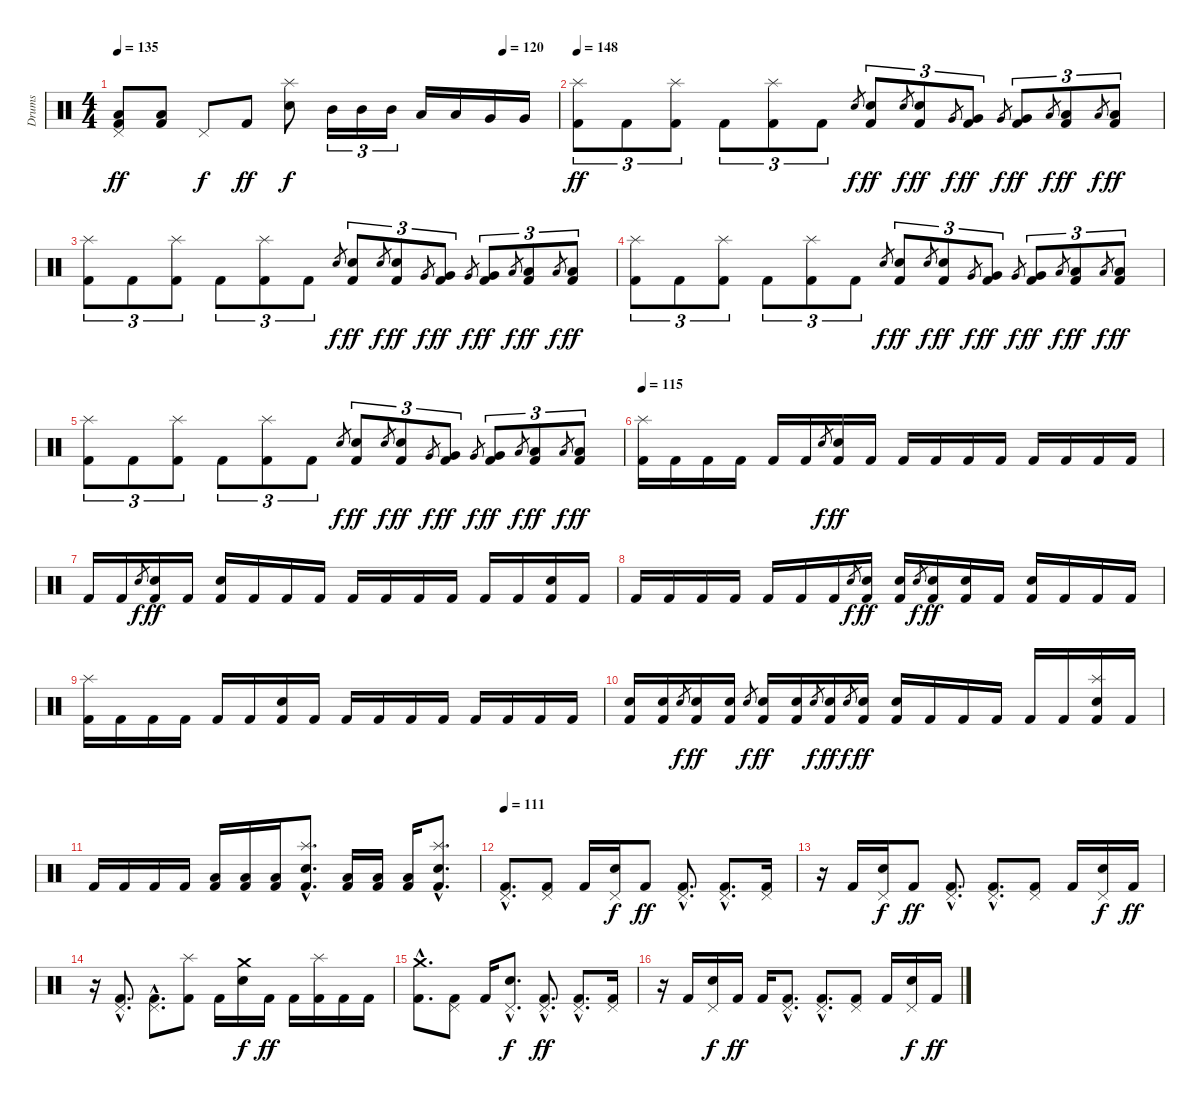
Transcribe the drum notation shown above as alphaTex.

\track ("Drums" "Drums") {instrument percussion}
\staff {score}
\articulation defaults
\ts (4 4)
\tempo 135
\tempo (120 0.875)
\clef neutral
\ks c
("Pedal Hi-Hat (hit)" "Low Floor Tom (hit)" "Kick (hit) 2").8{dy ff} ("Low Floor Tom (hit)" "Kick (hit) 2").8 "Pedal Hi-Hat (hit)".8{dy f} "Kick (hit) 2".8{dy ff} ("Splash (hit)" "Electric Snare (hit)").8{dy f} "Mid Tom (hit)".16{tu (3 2)} "Mid Tom (hit)".16{tu (3 2)} "Mid Tom (hit)".16{tu (3 2)} "Low Tom (hit)".16 "Low Tom (hit)".16 "Very Low Tom (hit)".16 "Very Low Tom (hit)".16 |
\tempo 148
("Splash (hit)" "Kick (hit) 2").8{tu (3 2) dy ff} "Kick (hit) 2".8{tu (3 2)} ("Splash (hit)" "Kick (hit) 2").8{tu (3 2)} "Kick (hit) 2".8{tu (3 2)} ("Splash (hit)" "Kick (hit) 2").8{tu (3 2)} "Kick (hit) 2".8{tu (3 2)} "Electric Snare (hit)".8{gr dy f} ("Electric Snare (hit)" "Kick (hit) 2").8{tu (3 2) dy ff} "Electric Snare (hit)".8{gr dy f} ("Electric Snare (hit)" "Kick (hit) 2").8{tu (3 2) dy ff} "Very Low Tom (hit)".8{gr dy f} ("Very Low Tom (hit)" "Kick (hit) 2").8{tu (3 2) dy ff} "Very Low Tom (hit)".8{gr dy f} ("Very Low Tom (hit)" "Kick (hit) 2").8{tu (3 2) dy ff} "Low Floor Tom (hit)".8{gr dy f} ("Low Floor Tom (hit)" "Kick (hit) 2").8{tu (3 2) dy ff} "Low Floor Tom (hit)".8{gr dy f} ("Low Floor Tom (hit)" "Kick (hit) 2").8{tu (3 2) dy ff} |
("Splash (hit)" "Kick (hit) 2").8{tu (3 2)} "Kick (hit) 2".8{tu (3 2)} ("Splash (hit)" "Kick (hit) 2").8{tu (3 2)} "Kick (hit) 2".8{tu (3 2)} ("Splash (hit)" "Kick (hit) 2").8{tu (3 2)} "Kick (hit) 2".8{tu (3 2)} "Electric Snare (hit)".8{gr dy f} ("Electric Snare (hit)" "Kick (hit) 2").8{tu (3 2) dy ff} "Electric Snare (hit)".8{gr dy f} ("Electric Snare (hit)" "Kick (hit) 2").8{tu (3 2) dy ff} "Very Low Tom (hit)".8{gr dy f} ("Very Low Tom (hit)" "Kick (hit) 2").8{tu (3 2) dy ff} "Very Low Tom (hit)".8{gr dy f} ("Very Low Tom (hit)" "Kick (hit) 2").8{tu (3 2) dy ff} "Low Floor Tom (hit)".8{gr dy f} ("Low Floor Tom (hit)" "Kick (hit) 2").8{tu (3 2) dy ff} "Low Floor Tom (hit)".8{gr dy f} ("Low Floor Tom (hit)" "Kick (hit) 2").8{tu (3 2) dy ff} |
("Splash (hit)" "Kick (hit) 2").8{tu (3 2)} "Kick (hit) 2".8{tu (3 2)} ("Splash (hit)" "Kick (hit) 2").8{tu (3 2)} "Kick (hit) 2".8{tu (3 2)} ("Splash (hit)" "Kick (hit) 2").8{tu (3 2)} "Kick (hit) 2".8{tu (3 2)} "Electric Snare (hit)".8{gr dy f} ("Electric Snare (hit)" "Kick (hit) 2").8{tu (3 2) dy ff} "Electric Snare (hit)".8{gr dy f} ("Electric Snare (hit)" "Kick (hit) 2").8{tu (3 2) dy ff} "Very Low Tom (hit)".8{gr dy f} ("Very Low Tom (hit)" "Kick (hit) 2").8{tu (3 2) dy ff} "Very Low Tom (hit)".8{gr dy f} ("Very Low Tom (hit)" "Kick (hit) 2").8{tu (3 2) dy ff} "Low Floor Tom (hit)".8{gr dy f} ("Low Floor Tom (hit)" "Kick (hit) 2").8{tu (3 2) dy ff} "Low Floor Tom (hit)".8{gr dy f} ("Low Floor Tom (hit)" "Kick (hit) 2").8{tu (3 2) dy ff} |
("Splash (hit)" "Kick (hit) 2").8{tu (3 2)} "Kick (hit) 2".8{tu (3 2)} ("Splash (hit)" "Kick (hit) 2").8{tu (3 2)} "Kick (hit) 2".8{tu (3 2)} ("Splash (hit)" "Kick (hit) 2").8{tu (3 2)} "Kick (hit) 2".8{tu (3 2)} "Electric Snare (hit)".8{gr dy f} ("Electric Snare (hit)" "Kick (hit) 2").8{tu (3 2) dy ff} "Electric Snare (hit)".8{gr dy f} ("Electric Snare (hit)" "Kick (hit) 2").8{tu (3 2) dy ff} "Very Low Tom (hit)".8{gr dy f} ("Very Low Tom (hit)" "Kick (hit) 2").8{tu (3 2) dy ff} "Very Low Tom (hit)".8{gr dy f} ("Very Low Tom (hit)" "Kick (hit) 2").8{tu (3 2) dy ff} "Low Floor Tom (hit)".8{gr dy f} ("Low Floor Tom (hit)" "Kick (hit) 2").8{tu (3 2) dy ff} "Low Floor Tom (hit)".8{gr dy f} ("Low Floor Tom (hit)" "Kick (hit) 2").8{tu (3 2) dy ff} |
\tempo 115
("Splash (hit)" "Kick (hit) 2").16 "Kick (hit) 2".16 "Kick (hit) 2".16 "Kick (hit) 2".16 "Kick (hit) 2".16 "Kick (hit) 2".16 "Electric Snare (hit)".8{gr dy f} ("Electric Snare (hit)" "Kick (hit) 2").16{dy ff} "Kick (hit) 2".16 "Kick (hit) 2".16 "Kick (hit) 2".16 "Kick (hit) 2".16 "Kick (hit) 2".16 "Kick (hit) 2".16 "Kick (hit) 2".16 "Kick (hit) 2".16 "Kick (hit) 2".16 |
"Kick (hit) 2".16 "Kick (hit) 2".16 "Electric Snare (hit)".8{gr dy f} ("Electric Snare (hit)" "Kick (hit) 2").16{dy ff} "Kick (hit) 2".16 ("Electric Snare (hit)" "Kick (hit) 2").16 "Kick (hit) 2".16 "Kick (hit) 2".16 "Kick (hit) 2".16 "Kick (hit) 2".16 "Kick (hit) 2".16 "Kick (hit) 2".16 "Kick (hit) 2".16 "Kick (hit) 2".16 "Kick (hit) 2".16 ("Electric Snare (hit)" "Kick (hit) 2").16 "Kick (hit) 2".16 |
"Kick (hit) 2".16 "Kick (hit) 2".16 "Kick (hit) 2".16 "Kick (hit) 2".16 "Kick (hit) 2".16 "Kick (hit) 2".16 "Kick (hit) 2".16 "Electric Snare (hit)".8{gr dy f} ("Electric Snare (hit)" "Kick (hit) 2").16{dy ff} ("Electric Snare (hit)" "Kick (hit) 2").16 "Electric Snare (hit)".8{gr dy f} ("Electric Snare (hit)" "Kick (hit) 2").16{dy ff} ("Electric Snare (hit)" "Kick (hit) 2").16 "Kick (hit) 2".16 ("Electric Snare (hit)" "Kick (hit) 2").16 "Kick (hit) 2".16 "Kick (hit) 2".16 "Kick (hit) 2".16 |
("Splash (hit)" "Kick (hit) 2").16 "Kick (hit) 2".16 "Kick (hit) 2".16 "Kick (hit) 2".16 "Kick (hit) 2".16 "Kick (hit) 2".16 ("Electric Snare (hit)" "Kick (hit) 2").16 "Kick (hit) 2".16 "Kick (hit) 2".16 "Kick (hit) 2".16 "Kick (hit) 2".16 "Kick (hit) 2".16 "Kick (hit) 2".16 "Kick (hit) 2".16 "Kick (hit) 2".16 "Kick (hit) 2".16 |
("Electric Snare (hit)" "Kick (hit) 2").16 ("Electric Snare (hit)" "Kick (hit) 2").16 "Electric Snare (hit)".8{gr dy f} ("Electric Snare (hit)" "Kick (hit) 2").16{dy ff} ("Electric Snare (hit)" "Kick (hit) 2").16 "Electric Snare (hit)".8{gr dy f} ("Electric Snare (hit)" "Kick (hit) 2").16{dy ff} ("Electric Snare (hit)" "Kick (hit) 2").16 "Electric Snare (hit)".8{gr dy f} ("Electric Snare (hit)" "Kick (hit) 2").16{dy ff} "Electric Snare (hit)".8{gr dy f} ("Electric Snare (hit)" "Kick (hit) 2").16{dy ff} ("Electric Snare (hit)" "Kick (hit) 2").16 "Kick (hit) 2".16 "Kick (hit) 2".16 "Kick (hit) 2".16 "Kick (hit) 2".16 "Kick (hit) 2".16 ("Splash (hit)" "Electric Snare (hit)" "Kick (hit) 2").16 "Kick (hit) 2".16 |
"Kick (hit) 2".16 "Kick (hit) 2".16 "Kick (hit) 2".16 "Kick (hit) 2".16 ("Low Floor Tom (hit)" "Kick (hit) 2").16 ("Low Floor Tom (hit)" "Kick (hit) 2").16 ("Low Floor Tom (hit)" "Kick (hit) 2").16 ("Splash (hit)"{hac} "Electric Snare (hit)"{hac} "Kick (hit) 2"{hac}).8{d} ("Low Floor Tom (hit)" "Kick (hit) 2").16 ("Low Floor Tom (hit)" "Kick (hit) 2").16 ("Low Floor Tom (hit)" "Kick (hit) 2").16 ("Splash (hit)"{hac} "Electric Snare (hit)"{hac} "Kick (hit) 2"{hac}).8{d} |
\tempo 111
("Pedal Hi-Hat (hit)"{hac} "Kick (hit) 2"{hac}).8{d} ("Pedal Hi-Hat (hit)" "Kick (hit) 2").8 "Kick (hit) 2".16 ("Pedal Hi-Hat (hit)" "Electric Snare (hit)").16{dy f} "Kick (hit) 2".8{dy ff} ("Pedal Hi-Hat (hit)"{hac} "Kick (hit) 2"{hac}).8{d} ("Pedal Hi-Hat (hit)"{hac} "Kick (hit) 2"{hac}).8{d} ("Pedal Hi-Hat (hit)" "Kick (hit) 2").16 |
r.16 "Kick (hit) 2".16 ("Pedal Hi-Hat (hit)" "Electric Snare (hit)").16{dy f} "Kick (hit) 2".8{dy ff} ("Pedal Hi-Hat (hit)"{hac} "Kick (hit) 2"{hac}).8{d} ("Pedal Hi-Hat (hit)"{hac} "Kick (hit) 2"{hac}).8{d} ("Pedal Hi-Hat (hit)" "Kick (hit) 2").8 "Kick (hit) 2".16 ("Pedal Hi-Hat (hit)" "Electric Snare (hit)").16{dy f} "Kick (hit) 2".16{dy ff} |
r.16 ("Pedal Hi-Hat (hit)"{hac} "Kick (hit) 2"{hac}).8{d} ("Pedal Hi-Hat (hit)"{hac} "Kick (hit) 2"{hac}).8{d} ("Splash (hit)" "Kick (hit) 2").8 "Kick (hit) 2".16 ("Crash medium (hit)" "Electric Snare (hit)").16{dy f} "Kick (hit) 2".16{dy ff} "Kick (hit) 2".16 ("Splash (hit)" "Kick (hit) 2").16 "Kick (hit) 2".16 "Kick (hit) 2".16 |
("Crash medium (hit)"{hac} "Kick (hit) 2"{hac}).8{d} ("Pedal Hi-Hat (hit)" "Kick (hit) 2").8 "Kick (hit) 2".16 ("Pedal Hi-Hat (hit)"{hac} "Electric Snare (hit)"{hac}).8{d dy f} ("Pedal Hi-Hat (hit)"{hac} "Kick (hit) 2"{hac}).8{d dy ff} ("Pedal Hi-Hat (hit)"{hac} "Kick (hit) 2"{hac}).8{d} ("Pedal Hi-Hat (hit)" "Kick (hit) 2").16 |
r.16 "Kick (hit) 2".16 ("Pedal Hi-Hat (hit)" "Electric Snare (hit)").16{dy f} "Kick (hit) 2".16{dy ff} "Kick (hit) 2".16 ("Pedal Hi-Hat (hit)"{hac} "Kick (hit) 2"{hac}).8{d} ("Pedal Hi-Hat (hit)"{hac} "Kick (hit) 2"{hac}).8{d} ("Pedal Hi-Hat (hit)" "Kick (hit) 2").8 "Kick (hit) 2".16 ("Pedal Hi-Hat (hit)" "Electric Snare (hit)").16{dy f} "Kick (hit) 2".16{dy ff}
